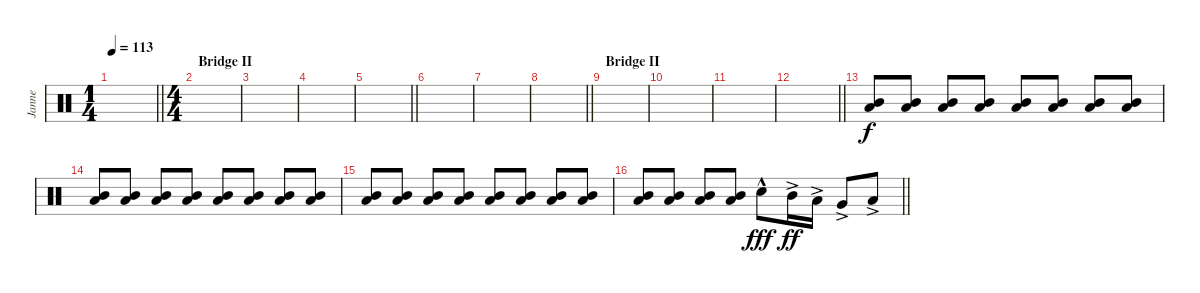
\track ("Janne" "Janne") {instrument percussion}
\staff {score}
\articulation defaults
\ts (1 4)
\section ("" "")
\tempo 113
\clef neutral
\barLineRight lightlight
\ks c
|
\ts (4 4)
\section ("" "Bridge II")
|
|
|
\barLineRight lightlight
|
\section ("" "")
|
|
\barLineRight lightlight
|
\section ("" "Bridge II")
|
|
|
\barLineRight lightlight
|
\section ("" "")
("Mid Tom (hit)" "Low Tom (hit)").8{volume 14} ("Mid Tom (hit)" "Low Tom (hit)").8 ("Mid Tom (hit)" "Low Tom (hit)").8 ("Mid Tom (hit)" "Low Tom (hit)").8 ("Mid Tom (hit)" "Low Tom (hit)").8 ("Mid Tom (hit)" "Low Tom (hit)").8 ("Mid Tom (hit)" "Low Tom (hit)").8 ("Mid Tom (hit)" "Low Tom (hit)").8 |
("Mid Tom (hit)" "Low Tom (hit)").8 ("Mid Tom (hit)" "Low Tom (hit)").8 ("Mid Tom (hit)" "Low Tom (hit)").8 ("Mid Tom (hit)" "Low Tom (hit)").8 ("Mid Tom (hit)" "Low Tom (hit)").8 ("Mid Tom (hit)" "Low Tom (hit)").8 ("Mid Tom (hit)" "Low Tom (hit)").8 ("Mid Tom (hit)" "Low Tom (hit)").8 |
("Mid Tom (hit)" "Low Tom (hit)").8 ("Mid Tom (hit)" "Low Tom (hit)").8 ("Mid Tom (hit)" "Low Tom (hit)").8 ("Mid Tom (hit)" "Low Tom (hit)").8 ("Mid Tom (hit)" "Low Tom (hit)").8 ("Mid Tom (hit)" "Low Tom (hit)").8 ("Mid Tom (hit)" "Low Tom (hit)").8 ("Mid Tom (hit)" "Low Tom (hit)").8 |
\barLineRight lightlight
("Mid Tom (hit)" "Low Tom (hit)").8 ("Mid Tom (hit)" "Low Tom (hit)").8 ("Mid Tom (hit)" "Low Tom (hit)").8 ("Mid Tom (hit)" "Low Tom (hit)").8 "Snare (hit) 2"{hac}.8{dy fff} "Mid Tom (hit)"{ac}.16{dy ff} "Low Tom (hit)"{ac}.16 "Very Low Tom (hit)"{ac}.8 "Low Floor Tom (hit)"{ac}.8
